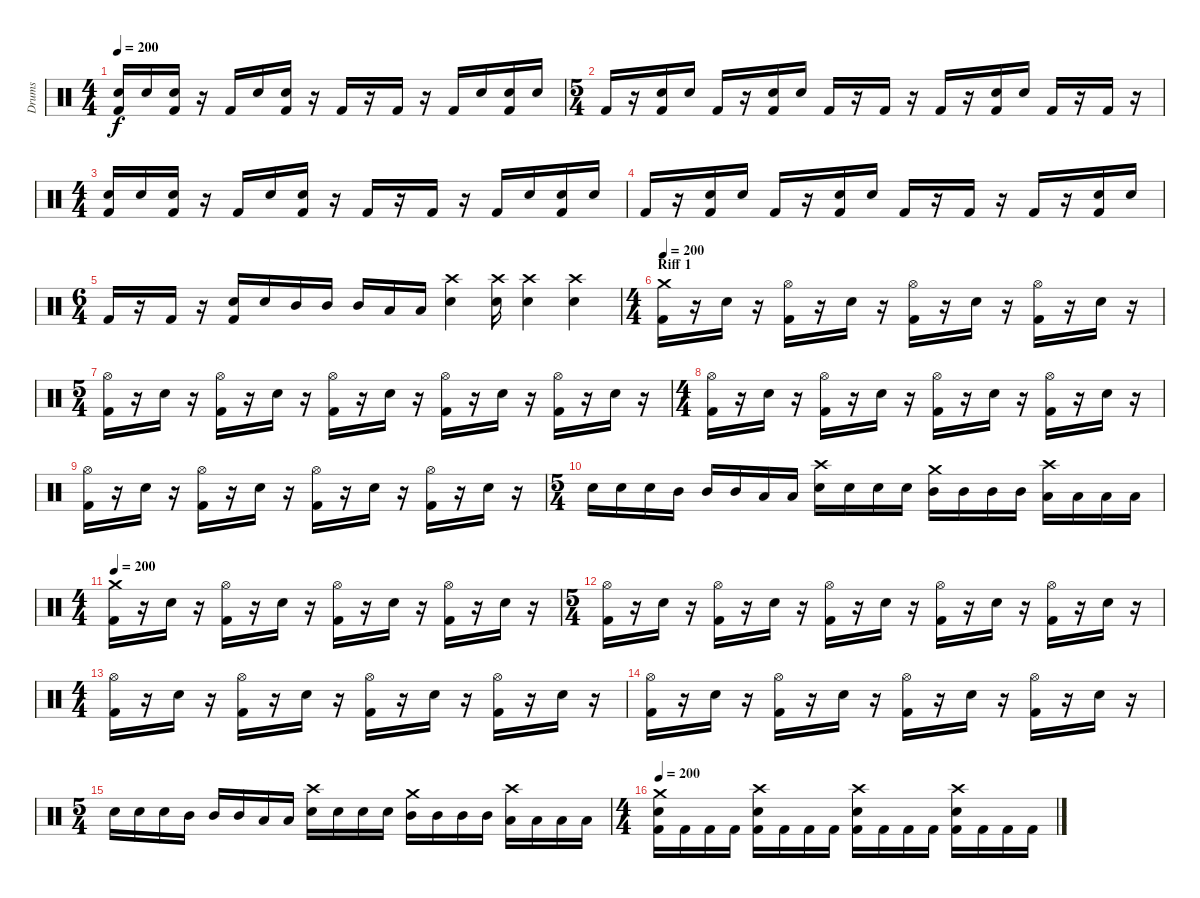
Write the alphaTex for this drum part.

\track ("Drums" "Drums") {instrument percussion}
\staff {score}
\articulation defaults
\ts (4 4)
\tempo 200
\clef neutral
\ks c
("Electric Snare (hit)" "Kick (hit) 2").16{dy f} "Electric Snare (hit)".16 ("Electric Snare (hit)" "Kick (hit) 2").16 r.16 "Kick (hit) 2".16 "Electric Snare (hit)".16 ("Electric Snare (hit)" "Kick (hit) 2").16 r.16 "Kick (hit) 2".16 r.16 "Kick (hit) 2".16 r.16 "Kick (hit) 2".16 "Electric Snare (hit)".16 ("Electric Snare (hit)" "Kick (hit) 2").16 "Electric Snare (hit)".16 |
\ts (5 4)
"Kick (hit) 2".16 r.16 ("Electric Snare (hit)" "Kick (hit) 2").16 "Electric Snare (hit)".16 "Kick (hit) 2".16 r.16 ("Electric Snare (hit)" "Kick (hit) 2").16 "Electric Snare (hit)".16 "Kick (hit) 2".16 r.16 "Kick (hit) 2".16 r.16 "Kick (hit) 2".16 r.16 ("Electric Snare (hit)" "Kick (hit) 2").16 "Electric Snare (hit)".16 "Kick (hit) 2".16 r.16 "Kick (hit) 2".16 r.16 |
\ts (4 4)
("Electric Snare (hit)" "Kick (hit) 2").16 "Electric Snare (hit)".16 ("Electric Snare (hit)" "Kick (hit) 2").16 r.16 "Kick (hit) 2".16 "Electric Snare (hit)".16 ("Electric Snare (hit)" "Kick (hit) 2").16 r.16 "Kick (hit) 2".16 r.16 "Kick (hit) 2".16 r.16 "Kick (hit) 2".16 "Electric Snare (hit)".16 ("Electric Snare (hit)" "Kick (hit) 2").16 "Electric Snare (hit)".16 |
"Kick (hit) 2".16 r.16 ("Electric Snare (hit)" "Kick (hit) 2").16 "Electric Snare (hit)".16 "Kick (hit) 2".16 r.16 ("Electric Snare (hit)" "Kick (hit) 2").16 "Electric Snare (hit)".16 "Kick (hit) 2".16 r.16 "Kick (hit) 2".16 r.16 "Kick (hit) 2".16 r.16 ("Electric Snare (hit)" "Kick (hit) 2").16 "Electric Snare (hit)".16 |
\ts (6 4)
"Kick (hit) 2".16 r.16 "Kick (hit) 2".16 r.16 ("Electric Snare (hit)" "Kick (hit) 2").16 "Electric Snare (hit)".16 "Mid Tom (hit)".16 "Mid Tom (hit)".16 "Mid Tom (hit)".16 "Low Tom (hit)".16 "Low Tom (hit)".16 ("Crash high (hit)" "Electric Snare (hit)").4 ("Crash high (hit)" "Electric Snare (hit)").16 ("Crash high (hit)" "Electric Snare (hit)").4 ("Crash high (hit)" "Electric Snare (hit)").4 |
\ts (4 4)
\section ("" "Riff 1")
\tempo 200
("Crash medium (hit)" "Kick (hit) 2").16 r.16 "Electric Snare (hit)".16 r.16 ("Hi-Hat (open)" "Kick (hit) 2").16 r.16 "Electric Snare (hit)".16 r.16 ("Hi-Hat (open)" "Kick (hit) 2").16 r.16 "Electric Snare (hit)".16 r.16 ("Hi-Hat (open)" "Kick (hit) 2").16 r.16 "Electric Snare (hit)".16 r.16 |
\ts (5 4)
("Hi-Hat (open)" "Kick (hit) 2").16 r.16 "Electric Snare (hit)".16 r.16 ("Hi-Hat (open)" "Kick (hit) 2").16 r.16 "Electric Snare (hit)".16 r.16 ("Hi-Hat (open)" "Kick (hit) 2").16 r.16 "Electric Snare (hit)".16 r.16 ("Hi-Hat (open)" "Kick (hit) 2").16 r.16 "Electric Snare (hit)".16 r.16 ("Hi-Hat (open)" "Kick (hit) 2").16 r.16 "Electric Snare (hit)".16 r.16 |
\ts (4 4)
("Hi-Hat (open)" "Kick (hit) 2").16 r.16 "Electric Snare (hit)".16 r.16 ("Hi-Hat (open)" "Kick (hit) 2").16 r.16 "Electric Snare (hit)".16 r.16 ("Hi-Hat (open)" "Kick (hit) 2").16 r.16 "Electric Snare (hit)".16 r.16 ("Hi-Hat (open)" "Kick (hit) 2").16 r.16 "Electric Snare (hit)".16 r.16 |
("Hi-Hat (open)" "Kick (hit) 2").16 r.16 "Electric Snare (hit)".16 r.16 ("Hi-Hat (open)" "Kick (hit) 2").16 r.16 "Electric Snare (hit)".16 r.16 ("Hi-Hat (open)" "Kick (hit) 2").16 r.16 "Electric Snare (hit)".16 r.16 ("Hi-Hat (open)" "Kick (hit) 2").16 r.16 "Electric Snare (hit)".16 r.16 |
\ts (5 4)
"Electric Snare (hit)".16 "Electric Snare (hit)".16 "Electric Snare (hit)".16 "Mid Tom (hit)".16 "Mid Tom (hit)".16 "Mid Tom (hit)".16 "Low Tom (hit)".16 "Low Tom (hit)".16 ("Crash high (hit)" "Electric Snare (hit)").16 "Electric Snare (hit)".16 "Electric Snare (hit)".16 "Electric Snare (hit)".16 ("Crash medium (hit)" "Mid Tom (hit)").16 "Mid Tom (hit)".16 "Mid Tom (hit)".16 "Mid Tom (hit)".16 ("Crash high (hit)" "Low Tom (hit)").16 "Low Tom (hit)".16 "Low Tom (hit)".16 "Low Tom (hit)".16 |
\ts (4 4)
\tempo 200
("Crash medium (hit)" "Kick (hit) 2").16 r.16 "Electric Snare (hit)".16 r.16 ("Hi-Hat (open)" "Kick (hit) 2").16 r.16 "Electric Snare (hit)".16 r.16 ("Hi-Hat (open)" "Kick (hit) 2").16 r.16 "Electric Snare (hit)".16 r.16 ("Hi-Hat (open)" "Kick (hit) 2").16 r.16 "Electric Snare (hit)".16 r.16 |
\ts (5 4)
("Hi-Hat (open)" "Kick (hit) 2").16 r.16 "Electric Snare (hit)".16 r.16 ("Hi-Hat (open)" "Kick (hit) 2").16 r.16 "Electric Snare (hit)".16 r.16 ("Hi-Hat (open)" "Kick (hit) 2").16 r.16 "Electric Snare (hit)".16 r.16 ("Hi-Hat (open)" "Kick (hit) 2").16 r.16 "Electric Snare (hit)".16 r.16 ("Hi-Hat (open)" "Kick (hit) 2").16 r.16 "Electric Snare (hit)".16 r.16 |
\ts (4 4)
("Hi-Hat (open)" "Kick (hit) 2").16 r.16 "Electric Snare (hit)".16 r.16 ("Hi-Hat (open)" "Kick (hit) 2").16 r.16 "Electric Snare (hit)".16 r.16 ("Hi-Hat (open)" "Kick (hit) 2").16 r.16 "Electric Snare (hit)".16 r.16 ("Hi-Hat (open)" "Kick (hit) 2").16 r.16 "Electric Snare (hit)".16 r.16 |
("Hi-Hat (open)" "Kick (hit) 2").16 r.16 "Electric Snare (hit)".16 r.16 ("Hi-Hat (open)" "Kick (hit) 2").16 r.16 "Electric Snare (hit)".16 r.16 ("Hi-Hat (open)" "Kick (hit) 2").16 r.16 "Electric Snare (hit)".16 r.16 ("Hi-Hat (open)" "Kick (hit) 2").16 r.16 "Electric Snare (hit)".16 r.16 |
\ts (5 4)
"Electric Snare (hit)".16 "Electric Snare (hit)".16 "Electric Snare (hit)".16 "Mid Tom (hit)".16 "Mid Tom (hit)".16 "Mid Tom (hit)".16 "Low Tom (hit)".16 "Low Tom (hit)".16 ("Crash high (hit)" "Electric Snare (hit)").16 "Electric Snare (hit)".16 "Electric Snare (hit)".16 "Electric Snare (hit)".16 ("Crash medium (hit)" "Mid Tom (hit)").16 "Mid Tom (hit)".16 "Mid Tom (hit)".16 "Mid Tom (hit)".16 ("Crash high (hit)" "Low Tom (hit)").16 "Low Tom (hit)".16 "Low Tom (hit)".16 "Low Tom (hit)".16 |
\ts (4 4)
\tempo 200
("Crash medium (hit)" "Electric Snare (hit)" "Kick (hit) 2").16 "Kick (hit) 2".16 "Kick (hit) 2".16 "Kick (hit) 2".16 ("Crash high (hit)" "Electric Snare (hit)" "Kick (hit) 2").16 "Kick (hit) 2".16 "Kick (hit) 2".16 "Kick (hit) 2".16 ("Crash high (hit)" "Electric Snare (hit)" "Kick (hit) 2").16 "Kick (hit) 2".16 "Kick (hit) 2".16 "Kick (hit) 2".16 ("Crash high (hit)" "Electric Snare (hit)" "Kick (hit) 2").16 "Kick (hit) 2".16 "Kick (hit) 2".16 "Kick (hit) 2".16
